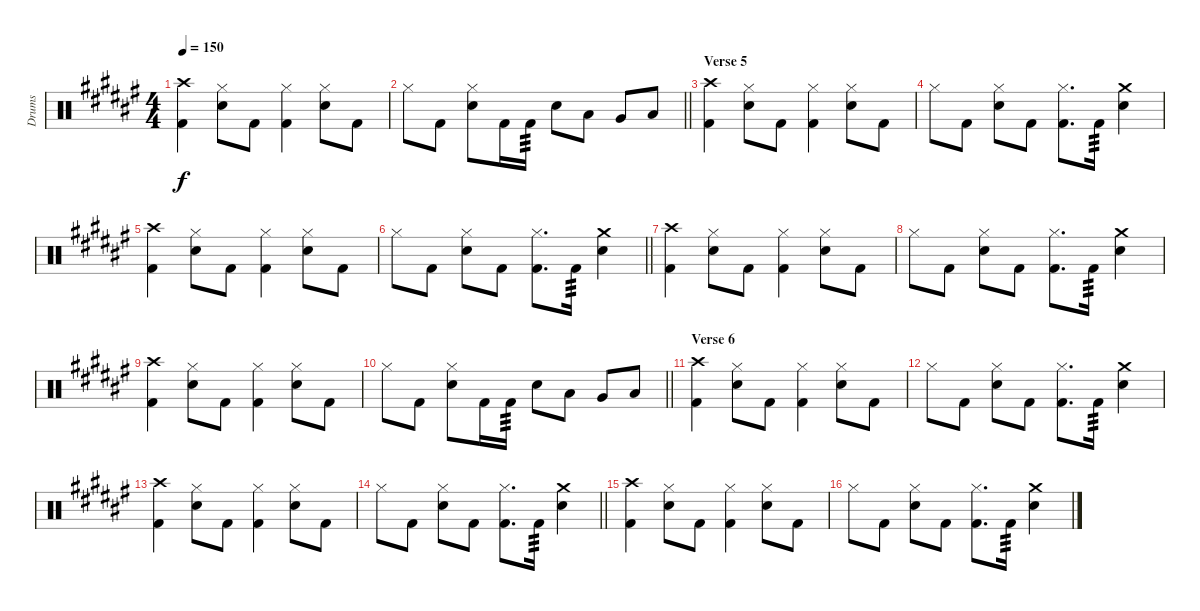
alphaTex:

\track ("Drums" "Drums") {instrument percussion}
\staff {score}
\articulation defaults
\ts (4 4)
\tempo 150
\clef neutral
\ks f#
("Crash high (hit)" "Kick (hit) 2").4{dy f} ("Electric Snare (hit)" "Hi-Hat (closed)").8 "Kick (hit) 2".8 ("Hi-Hat (closed)" "Kick (hit) 2").4 ("Electric Snare (hit)" "Hi-Hat (closed)").8 "Kick (hit) 2".8 |
\barLineRight lightlight "Hi-Hat (closed)".8 "Kick (hit) 2".8
("Electric Snare (hit)" "Hi-Hat (closed)").8 "Kick (hit) 2".16 "Kick (hit) 2".16{tp 3} "Electric Snare (hit)".8 "Low Floor Tom (hit)".8 "Very Low Tom (hit)".8 "Low Floor Tom (hit)".8 |
\section ("" "Verse 5")
("Crash high (hit)" "Kick (hit) 2").4 ("Electric Snare (hit)" "Hi-Hat (closed)").8 "Kick (hit) 2".8 ("Hi-Hat (closed)" "Kick (hit) 2").4 ("Electric Snare (hit)" "Hi-Hat (closed)").8 "Kick (hit) 2".8 |
"Hi-Hat (closed)".8 "Kick (hit) 2".8 ("Electric Snare (hit)" "Hi-Hat (closed)").8 "Kick (hit) 2".8 ("Hi-Hat (closed)" "Kick (hit) 2").8{d} "Kick (hit) 2".16{tp 3} ("Crash medium (hit)" "Electric Snare (hit)").4 |
("Crash high (hit)" "Kick (hit) 2").4 ("Electric Snare (hit)" "Hi-Hat (closed)").8 "Kick (hit) 2".8 ("Hi-Hat (closed)" "Kick (hit) 2").4 ("Electric Snare (hit)" "Hi-Hat (closed)").8 "Kick (hit) 2".8 |
\barLineRight lightlight "Hi-Hat (closed)".8 "Kick (hit) 2".8
("Electric Snare (hit)" "Hi-Hat (closed)").8 "Kick (hit) 2".8 ("Hi-Hat (closed)" "Kick (hit) 2").8{d} "Kick (hit) 2".16{tp 3} ("Crash medium (hit)" "Electric Snare (hit)").4 |
("Crash high (hit)" "Kick (hit) 2").4 ("Electric Snare (hit)" "Hi-Hat (closed)").8 "Kick (hit) 2".8 ("Hi-Hat (closed)" "Kick (hit) 2").4 ("Electric Snare (hit)" "Hi-Hat (closed)").8 "Kick (hit) 2".8 |
"Hi-Hat (closed)".8 "Kick (hit) 2".8 ("Electric Snare (hit)" "Hi-Hat (closed)").8 "Kick (hit) 2".8 ("Hi-Hat (closed)" "Kick (hit) 2").8{d} "Kick (hit) 2".16{tp 3} ("Crash medium (hit)" "Electric Snare (hit)").4 |
("Crash high (hit)" "Kick (hit) 2").4 ("Electric Snare (hit)" "Hi-Hat (closed)").8 "Kick (hit) 2".8 ("Hi-Hat (closed)" "Kick (hit) 2").4 ("Electric Snare (hit)" "Hi-Hat (closed)").8 "Kick (hit) 2".8 |
\barLineRight lightlight "Hi-Hat (closed)".8 "Kick (hit) 2".8
("Electric Snare (hit)" "Hi-Hat (closed)").8 "Kick (hit) 2".16 "Kick (hit) 2".16{tp 3} "Electric Snare (hit)".8 "Low Floor Tom (hit)".8 "Very Low Tom (hit)".8 "Low Floor Tom (hit)".8 |
\section ("" "Verse 6")
("Crash high (hit)" "Kick (hit) 2").4 ("Electric Snare (hit)" "Hi-Hat (closed)").8 "Kick (hit) 2".8 ("Hi-Hat (closed)" "Kick (hit) 2").4 ("Electric Snare (hit)" "Hi-Hat (closed)").8 "Kick (hit) 2".8 |
"Hi-Hat (closed)".8 "Kick (hit) 2".8 ("Electric Snare (hit)" "Hi-Hat (closed)").8 "Kick (hit) 2".8 ("Hi-Hat (closed)" "Kick (hit) 2").8{d} "Kick (hit) 2".16{tp 3} ("Crash medium (hit)" "Electric Snare (hit)").4 |
("Crash high (hit)" "Kick (hit) 2").4 ("Electric Snare (hit)" "Hi-Hat (closed)").8 "Kick (hit) 2".8 ("Hi-Hat (closed)" "Kick (hit) 2").4 ("Electric Snare (hit)" "Hi-Hat (closed)").8 "Kick (hit) 2".8 |
\barLineRight lightlight "Hi-Hat (closed)".8 "Kick (hit) 2".8
("Electric Snare (hit)" "Hi-Hat (closed)").8 "Kick (hit) 2".8 ("Hi-Hat (closed)" "Kick (hit) 2").8{d} "Kick (hit) 2".16{tp 3} ("Crash medium (hit)" "Electric Snare (hit)").4 |
("Crash high (hit)" "Kick (hit) 2").4 ("Electric Snare (hit)" "Hi-Hat (closed)").8 "Kick (hit) 2".8 ("Hi-Hat (closed)" "Kick (hit) 2").4 ("Electric Snare (hit)" "Hi-Hat (closed)").8 "Kick (hit) 2".8 |
"Hi-Hat (closed)".8 "Kick (hit) 2".8 ("Electric Snare (hit)" "Hi-Hat (closed)").8 "Kick (hit) 2".8 ("Hi-Hat (closed)" "Kick (hit) 2").8{d} "Kick (hit) 2".16{tp 3} ("Crash medium (hit)" "Electric Snare (hit)").4
